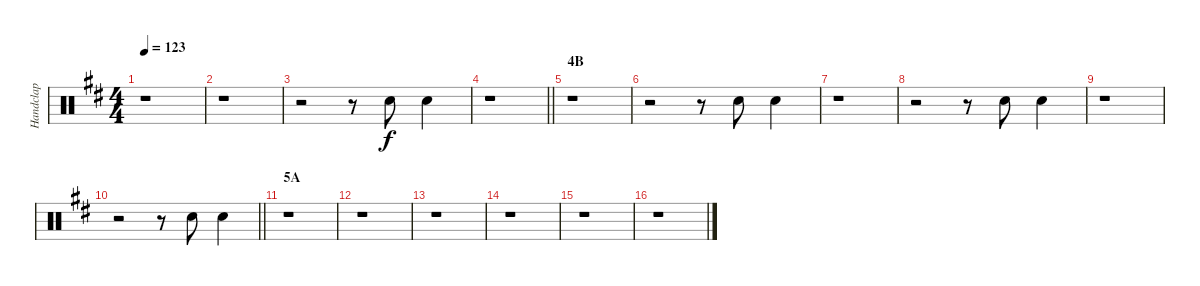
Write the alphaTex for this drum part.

\track ("Handclap" "Handclap") {instrument percussion}
\staff {score}
\articulation defaults
\ts (4 4)
\tempo 123
\clef neutral
\ks d
r.1{dy f} |
r.1 |
r.2 r.8 "Hand Clap (hit)".8 "Hand Clap (hit)".4 |
\barLineRight lightlight
r.1 |
\section ("" "4B")
r.1 |
r.2 r.8 "Hand Clap (hit)".8 "Hand Clap (hit)".4 |
r.1 |
r.2 r.8 "Hand Clap (hit)".8 "Hand Clap (hit)".4 |
r.1 |
\barLineRight lightlight
r.2 r.8 "Hand Clap (hit)".8 "Hand Clap (hit)".4 |
\section ("" "5A")
r.1 |
r.1 |
r.1 |
r.1 |
r.1 |
r.1
